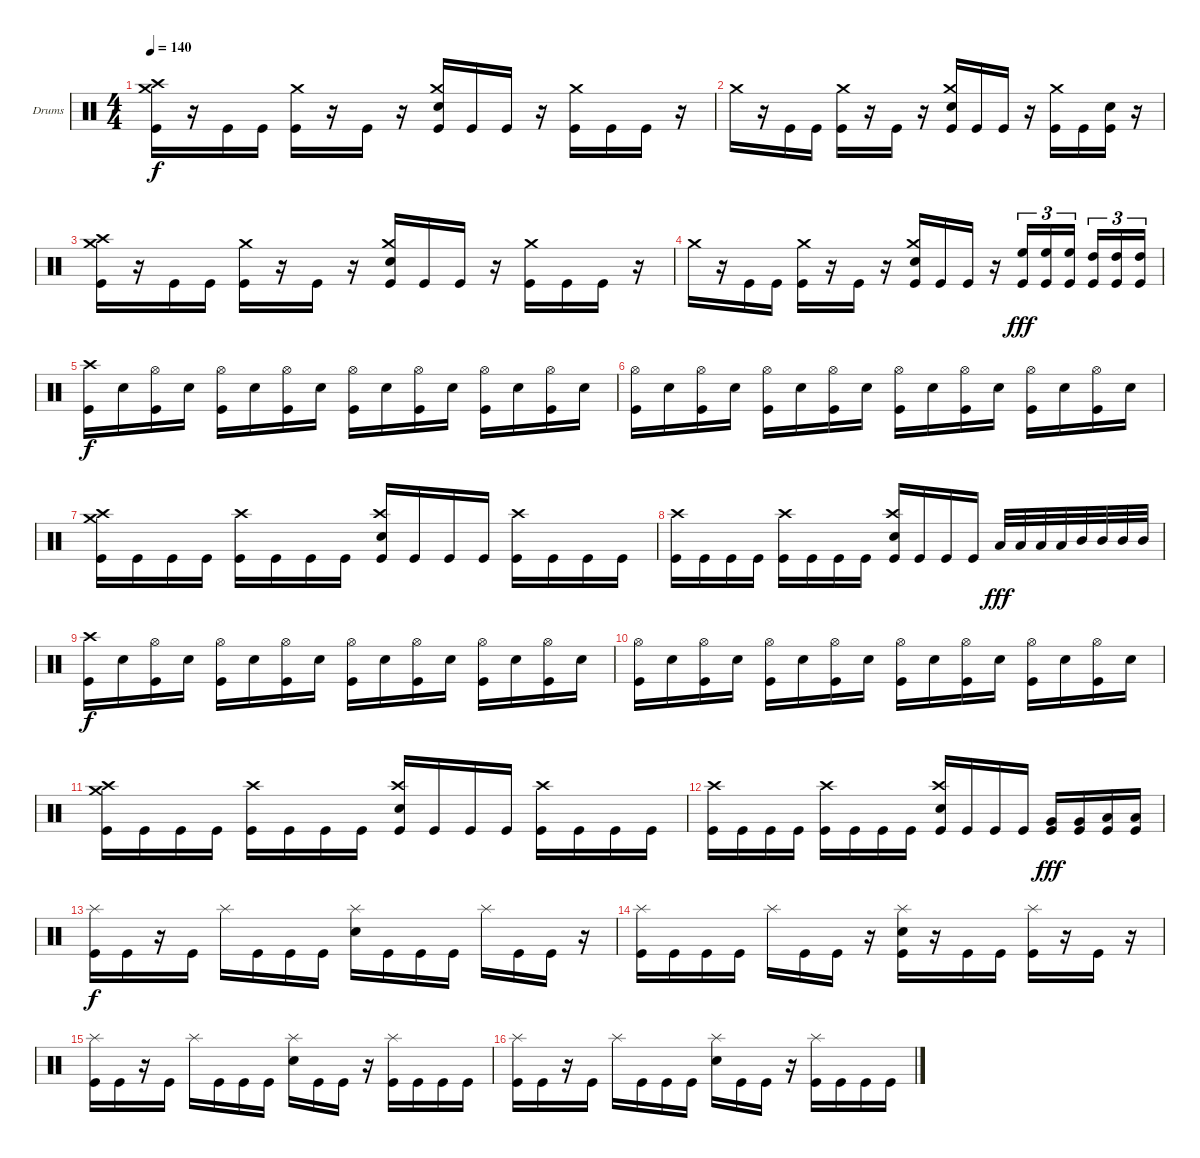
\defaultSystemsLayout 4
\bracketExtendMode groupsimilarinstruments
\firstSystemTrackNameOrientation horizontal
\otherSystemsTrackNameOrientation horizontal
\track ("Drumkit" "Drums") {instrument percussion}
\staff {score}
\articulation defaults
\ts (4 4)
\tempo 140
\clef neutral
\scale
0.333333
\ks c
("Kick (hit)" "Crash high (hit)" "Crash medium (hit)").16{dy f} r.16 "Kick (hit)".16 "Kick (hit)".16 ("Kick (hit)" "Crash medium (hit)").16 r.16 "Kick (hit)".16 r.16 ("Kick (hit)" "Snare (hit) 2" "Crash medium (hit)").16 "Kick (hit)".16 "Kick (hit)".16 r.16 ("Kick (hit)" "Crash medium (hit)").16 "Kick (hit)".16 "Kick (hit)".16 r.16 |
\scale
0.333333 "Crash medium (hit)".16 r.16 "Kick (hit)".16 "Kick (hit)".16 ("Kick (hit)" "Crash medium (hit)").16 r.16 "Kick (hit)".16 r.16 ("Kick (hit)" "Snare (hit) 2" "Crash medium (hit)").16 "Kick (hit)".16 "Kick (hit)".16 r.16 ("Kick (hit)" "Crash medium (hit)").16 "Kick (hit)".16 ("Kick (hit)" "Snare (hit) 2").16 r.16 |
\scale
0.333333 ("Kick (hit)" "Crash high (hit)" "Crash medium (hit)").16 r.16 "Kick (hit)".16 "Kick (hit)".16 ("Kick (hit)" "Crash medium (hit)").16 r.16 "Kick (hit)".16 r.16 ("Kick (hit)" "Snare (hit) 2" "Crash medium (hit)").16 "Kick (hit)".16 "Kick (hit)".16 r.16 ("Kick (hit)" "Crash medium (hit)").16 "Kick (hit)".16 "Kick (hit)".16 r.16 |
\scale
0.333333 "Crash medium (hit)".16 r.16 "Kick (hit)".16 "Kick (hit)".16 ("Kick (hit)" "Crash medium (hit)").16 r.16 "Kick (hit)".16 r.16 ("Kick (hit)" "Snare (hit) 2" "Crash medium (hit)").16 "Kick (hit)".16 "Kick (hit)".16 r.16 ("High Floor Tom (hit)" "Kick (hit)").16{tu (3 2) dy fff} ("High Floor Tom (hit)" "Kick (hit)").16{tu (3 2)} ("High Floor Tom (hit)" "Kick (hit)").16{tu (3 2)} ("High Tom (hit)" "Kick (hit)").16{tu (3 2)} ("High Tom (hit)" "Kick (hit)").16{tu (3 2)} ("High Tom (hit)" "Kick (hit)").16{tu (3 2)} |
\scale
0.333333 ("Kick (hit)" "Crash high (hit)").16{dy f} "Snare (hit) 2".16 ("Kick (hit)" "Hi-Hat (open)").16 "Snare (hit) 2".16 ("Kick (hit)" "Hi-Hat (open)").16 "Snare (hit) 2".16 ("Kick (hit)" "Hi-Hat (open)").16 "Snare (hit) 2".16 ("Kick (hit)" "Hi-Hat (open)").16 "Snare (hit) 2".16 ("Kick (hit)" "Hi-Hat (open)").16 "Snare (hit) 2".16 ("Kick (hit)" "Hi-Hat (open)").16 "Snare (hit) 2".16 ("Hi-Hat (open)" "Kick (hit)").16 "Snare (hit) 2".16 |
\scale
0.333333 ("Kick (hit)" "Hi-Hat (open)").16 "Snare (hit) 2".16 ("Kick (hit)" "Hi-Hat (open)").16 "Snare (hit) 2".16 ("Kick (hit)" "Hi-Hat (open)").16 "Snare (hit) 2".16 ("Kick (hit)" "Hi-Hat (open)").16 "Snare (hit) 2".16 ("Kick (hit)" "Hi-Hat (open)").16 "Snare (hit) 2".16 ("Kick (hit)" "Hi-Hat (open)").16 "Snare (hit) 2".16 ("Kick (hit)" "Hi-Hat (open)").16 "Snare (hit) 2".16 ("Kick (hit)" "Hi-Hat (open)").16 "Snare (hit) 2".16 |
\scale
0.333333 ("Kick (hit)" "Crash high (hit)" "Crash medium (hit)").16 "Kick (hit)".16 "Kick (hit)".16 "Kick (hit)".16 ("Kick (hit)" "Crash high (hit)").16 "Kick (hit)".16 "Kick (hit)".16 "Kick (hit)".16 ("Kick (hit)" "Snare (hit) 2" "Crash high (hit)").16 "Kick (hit)".16 "Kick (hit)".16 "Kick (hit)".16 ("Kick (hit)" "Crash high (hit)").16 "Kick (hit)".16 "Kick (hit)".16 "Kick (hit)".16 |
\scale
0.333333 ("Kick (hit)" "Crash high (hit)").16 "Kick (hit)".16 "Kick (hit)".16 "Kick (hit)".16 ("Kick (hit)" "Crash high (hit)").16 "Kick (hit)".16 "Kick (hit)".16 "Kick (hit)".16 ("Kick (hit)" "Snare (hit) 2" "Crash high (hit)").16 "Kick (hit)".16 "Kick (hit)".16 "Kick (hit)".16 "Low Tom (hit)".32{dy fff} "Low Tom (hit)".32 "Low Tom (hit)".32 "Low Tom (hit)".32 "Mid Tom (hit)".32 "Mid Tom (hit)".32 "Mid Tom (hit)".32 "Mid Tom (hit)".32 |
\scale
0.333333 ("Kick (hit)" "Crash high (hit)").16{dy f} "Snare (hit) 2".16 ("Kick (hit)" "Hi-Hat (open)").16 "Snare (hit) 2".16 ("Kick (hit)" "Hi-Hat (open)").16 "Snare (hit) 2".16 ("Kick (hit)" "Hi-Hat (open)").16 "Snare (hit) 2".16 ("Kick (hit)" "Hi-Hat (open)").16 "Snare (hit) 2".16 ("Kick (hit)" "Hi-Hat (open)").16 "Snare (hit) 2".16 ("Kick (hit)" "Hi-Hat (open)").16 "Snare (hit) 2".16 ("Kick (hit)" "Hi-Hat (open)").16 "Snare (hit) 2".16 |
\scale
0.333333 ("Kick (hit)" "Hi-Hat (open)").16 "Snare (hit) 2".16 ("Kick (hit)" "Hi-Hat (open)").16 "Snare (hit) 2".16 ("Kick (hit)" "Hi-Hat (open)").16 "Snare (hit) 2".16 ("Kick (hit)" "Hi-Hat (open)").16 "Snare (hit) 2".16 ("Kick (hit)" "Hi-Hat (open)").16 "Snare (hit) 2".16 ("Kick (hit)" "Hi-Hat (open)").16 "Snare (hit) 2".16 ("Kick (hit)" "Hi-Hat (open)").16 "Snare (hit) 2".16 ("Kick (hit)" "Hi-Hat (open)").16 "Snare (hit) 2".16 |
\scale
0.333333 ("Kick (hit)" "Crash high (hit)" "Crash medium (hit)").16 "Kick (hit)".16 "Kick (hit)".16 "Kick (hit)".16 ("Kick (hit)" "Crash high (hit)").16 "Kick (hit)".16 "Kick (hit)".16 "Kick (hit)".16 ("Kick (hit)" "Snare (hit) 2" "Crash high (hit)").16 "Kick (hit)".16 "Kick (hit)".16 "Kick (hit)".16 ("Kick (hit)" "Crash high (hit)").16 "Kick (hit)".16 "Kick (hit)".16 "Kick (hit)".16 |
\scale
0.333333 ("Kick (hit)" "Crash high (hit)").16 "Kick (hit)".16 "Kick (hit)".16 "Kick (hit)".16 ("Kick (hit)" "Crash high (hit)").16 "Kick (hit)".16 "Kick (hit)".16 "Kick (hit)".16 ("Kick (hit)" "Snare (hit) 2" "Crash high (hit)").16 "Kick (hit)".16 "Kick (hit)".16 "Kick (hit)".16 ("Very Low Tom (hit)" "Kick (hit)").16{dy fff} ("Very Low Tom (hit)" "Kick (hit)").16 ("Low Tom (hit)" "Kick (hit)").16 ("Low Tom (hit)" "Kick (hit)").16 |
\scale
0.333333 ("Kick (hit)" "Splash (hit)").16{dy f} "Kick (hit)".16 r.16 "Kick (hit)".16 "Splash (hit)".16 "Kick (hit)".16 "Kick (hit)".16 "Kick (hit)".16 ("Splash (hit)" "Snare (hit) 2").16 "Kick (hit)".16 "Kick (hit)".16 "Kick (hit)".16 "Splash (hit)".16 "Kick (hit)".16 "Kick (hit)".16 r.16 |
\scale
0.333333 ("Kick (hit)" "Splash (hit)").16 "Kick (hit)".16 "Kick (hit)".16 "Kick (hit)".16 "Splash (hit)".16 "Kick (hit)".16 "Kick (hit)".16 r.16 ("Kick (hit)" "Splash (hit)" "Snare (hit) 2").16 r.16 "Kick (hit)".16 "Kick (hit)".16 ("Kick (hit)" "Splash (hit)").16 r.16 "Kick (hit)".16 r.16 |
\scale
0.333333 ("Kick (hit)" "Splash (hit)").16 "Kick (hit)".16 r.16 "Kick (hit)".16 "Splash (hit)".16 "Kick (hit)".16 "Kick (hit)".16 "Kick (hit)".16 ("Splash (hit)" "Snare (hit) 2").16 "Kick (hit)".16 "Kick (hit)".16 r.16 ("Splash (hit)" "Kick (hit)").16 "Kick (hit)".16 "Kick (hit)".16 "Kick (hit)".16 |
\scale
0.333333 ("Kick (hit)" "Splash (hit)").16 "Kick (hit)".16 r.16 "Kick (hit)".16 "Splash (hit)".16 "Kick (hit)".16 "Kick (hit)".16 "Kick (hit)".16 ("Splash (hit)" "Snare (hit) 2").16 "Kick (hit)".16 "Kick (hit)".16 r.16 ("Splash (hit)" "Kick (hit)").16 "Kick (hit)".16 "Kick (hit)".16 "Kick (hit)".16
